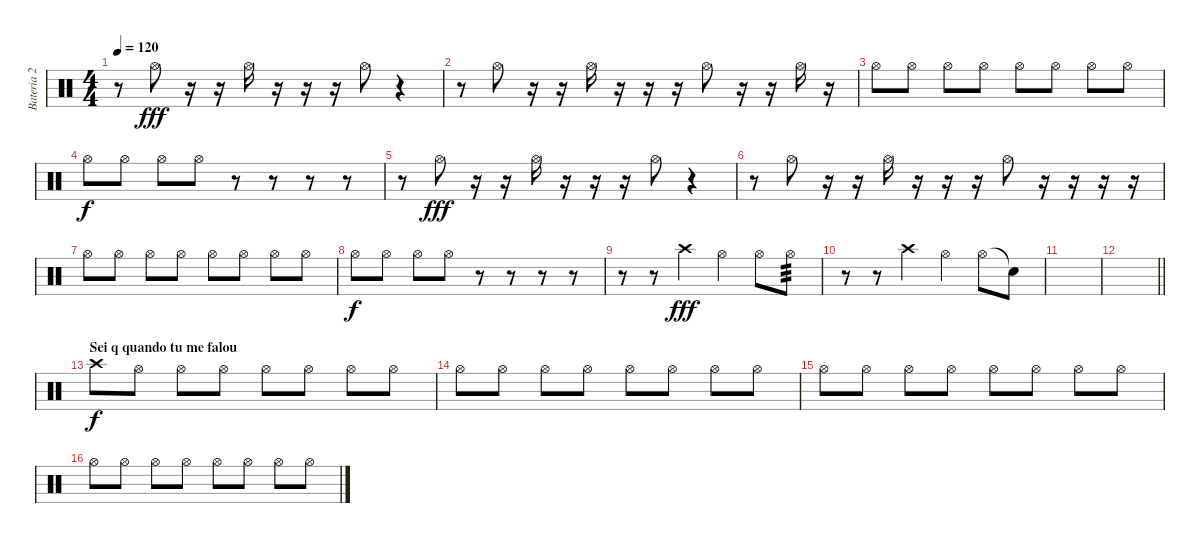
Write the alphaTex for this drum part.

\track ("Bateria 2" "Bateria 2") {instrument percussion}
\staff {score}
\articulation defaults
\ts (4 4)
\tempo 120
\clef neutral
\ks c
r.8{dy f} "Hi-Hat (open)".8{dy fff} r.16 r.16 "Hi-Hat (open)".16 r.16 r.16 r.16 "Hi-Hat (open)".8 r.4 |
r.8 "Hi-Hat (open)".8 r.16 r.16 "Hi-Hat (open)".16 r.16 r.16 r.16 "Hi-Hat (open)".8 r.16 r.16 "Hi-Hat (open)".16 r.16 |
"Hi-Hat (open)".8 "Hi-Hat (open)".8 "Hi-Hat (open)".8 "Hi-Hat (open)".8 "Hi-Hat (open)".8 "Hi-Hat (open)".8 "Hi-Hat (open)".8 "Hi-Hat (open)".8 |
"Hi-Hat (open)".8{dy f} "Hi-Hat (open)".8 "Hi-Hat (open)".8 "Hi-Hat (open)".8 r.8 r.8 r.8 r.8 |
r.8 "Hi-Hat (open)".8{dy fff} r.16 r.16 "Hi-Hat (open)".16 r.16 r.16 r.16 "Hi-Hat (open)".8 r.4 |
r.8 "Hi-Hat (open)".8 r.16 r.16 "Hi-Hat (open)".16 r.16 r.16 r.16 "Hi-Hat (open)".8 r.16 r.16 r.16 r.16 |
"Hi-Hat (open)".8 "Hi-Hat (open)".8 "Hi-Hat (open)".8 "Hi-Hat (open)".8 "Hi-Hat (open)".8 "Hi-Hat (open)".8 "Hi-Hat (open)".8 "Hi-Hat (open)".8 |
"Hi-Hat (open)".8{dy f} "Hi-Hat (open)".8 "Hi-Hat (open)".8 "Hi-Hat (open)".8 r.8 r.8 r.8 r.8 |
r.8 r.8 "Crash high (hit)".4{dy fff} "Hi-Hat (open)".4 "Hi-Hat (open)".8 "Hi-Hat (open)".8{tp 3} |
r.8 r.8 "Crash high (hit)".4 "Hi-Hat (open)".4 "Hi-Hat (open)".8 "Snare (hit)"{t}.8 |
|
\barLineRight lightlight
|
\section ("" "Sei q quando tu me falou")
"Crash high (hit)".8{dy f} "Hi-Hat (open)".8 "Hi-Hat (open)".8 "Hi-Hat (open)".8 "Hi-Hat (open)".8 "Hi-Hat (open)".8 "Hi-Hat (open)".8 "Hi-Hat (open)".8 |
"Hi-Hat (open)".8 "Hi-Hat (open)".8 "Hi-Hat (open)".8 "Hi-Hat (open)".8 "Hi-Hat (open)".8 "Hi-Hat (open)".8 "Hi-Hat (open)".8 "Hi-Hat (open)".8 |
"Hi-Hat (open)".8 "Hi-Hat (open)".8 "Hi-Hat (open)".8 "Hi-Hat (open)".8 "Hi-Hat (open)".8 "Hi-Hat (open)".8 "Hi-Hat (open)".8 "Hi-Hat (open)".8 |
"Hi-Hat (open)".8 "Hi-Hat (open)".8 "Hi-Hat (open)".8 "Hi-Hat (open)".8 "Hi-Hat (open)".8 "Hi-Hat (open)".8 "Hi-Hat (open)".8 "Hi-Hat (open)".8
